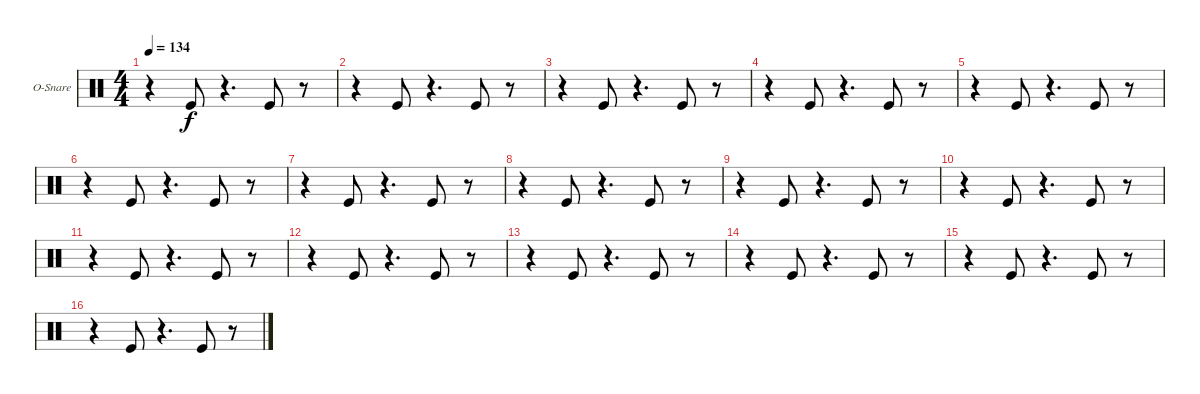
\bracketExtendMode groupsimilarinstruments
\firstSystemTrackNameOrientation horizontal
\otherSystemsTrackNameOrientation horizontal
\track ("Open Snare" "O-Snare") {instrument percussion}
\staff {score}
\articulation defaults
\ts (4 4)
\tempo 134
\clef neutral
\ks c
r.4{dy f} "Kick (hit)".8 r.4{d} "Kick (hit)".8 r.8 |
r.4 "Kick (hit)".8 r.4{d} "Kick (hit)".8 r.8 |
r.4 "Kick (hit)".8 r.4{d} "Kick (hit)".8 r.8 |
r.4 "Kick (hit)".8 r.4{d} "Kick (hit)".8 r.8 |
r.4 "Kick (hit)".8 r.4{d} "Kick (hit)".8 r.8 |
r.4 "Kick (hit)".8 r.4{d} "Kick (hit)".8 r.8 |
r.4 "Kick (hit)".8 r.4{d} "Kick (hit)".8 r.8 |
r.4 "Kick (hit)".8 r.4{d} "Kick (hit)".8 r.8 |
\scale
0.25 r.4 "Kick (hit)".8 r.4{d} "Kick (hit)".8 r.8 |
\scale
0.25 r.4 "Kick (hit)".8 r.4{d} "Kick (hit)".8 r.8 |
\scale
0.25 r.4 "Kick (hit)".8 r.4{d} "Kick (hit)".8 r.8 |
\scale
0.25 r.4 "Kick (hit)".8 r.4{d} "Kick (hit)".8 r.8 |
\scale
0.25 r.4 "Kick (hit)".8 r.4{d} "Kick (hit)".8 r.8 |
\scale
0.25 r.4 "Kick (hit)".8 r.4{d} "Kick (hit)".8 r.8 |
\scale
0.25 r.4 "Kick (hit)".8 r.4{d} "Kick (hit)".8 r.8 |
r.4 "Kick (hit)".8 r.4{d} "Kick (hit)".8 r.8
